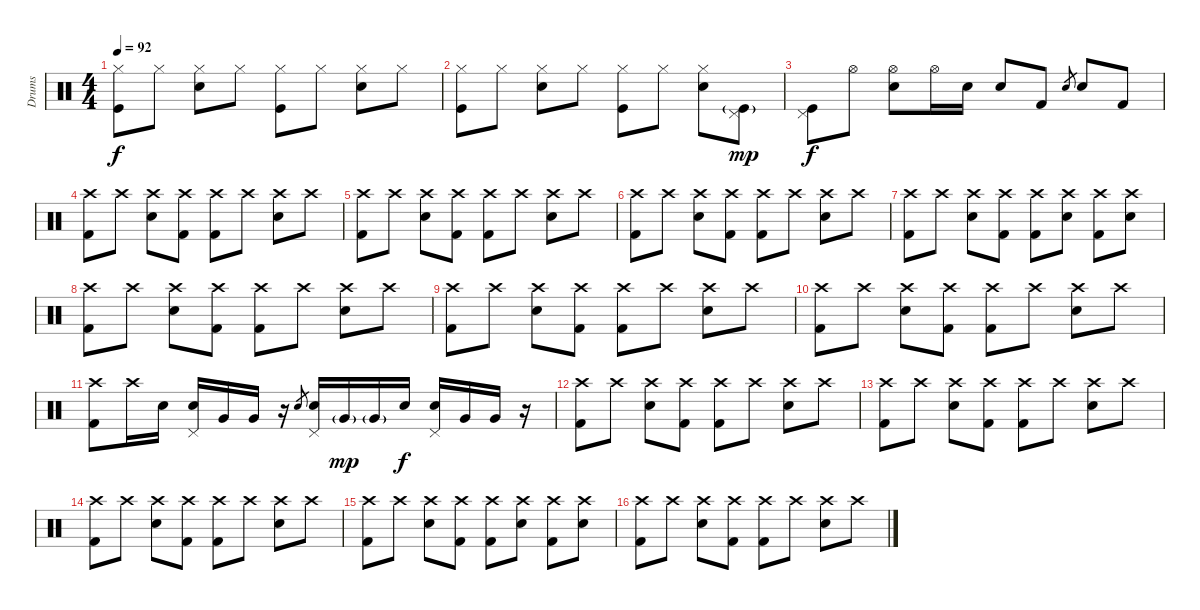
\track ("Drums" "Drums") {instrument percussion}
\staff {score}
\articulation defaults
\ts (4 4)
\tempo 92
\clef neutral
\ks c
("Hi-Hat (closed)" "Kick (hit)").8{dy f} "Hi-Hat (closed)".8 ("Hi-Hat (closed)" "Snare (hit) 2").8 "Hi-Hat (closed)".8 ("Hi-Hat (closed)" "Kick (hit)").8 "Hi-Hat (closed)".8 ("Hi-Hat (closed)" "Snare (hit) 2").8 "Hi-Hat (closed)".8 |
("Hi-Hat (closed)" "Kick (hit)").8 "Hi-Hat (closed)".8 ("Hi-Hat (closed)" "Snare (hit) 2").8 "Hi-Hat (closed)".8 ("Hi-Hat (closed)" "Kick (hit)").8 "Hi-Hat (closed)".8 ("Hi-Hat (closed)" "Snare (hit) 2").8 ("Pedal Hi-Hat (hit)" "Kick (hit)"{g}).8{dy mp} |
("Pedal Hi-Hat (hit)" "Kick (hit)").8{dy f} "Hi-Hat (open)".8 ("Hi-Hat (open)" "Snare (hit) 2").8 "Hi-Hat (open)".16 "Snare (hit) 2".16 "Snare (hit) 2".8 "Kick (hit) 2".8 "Snare (hit) 2".8{gr} "Snare (hit) 2".8 "Kick (hit) 2".8 |
("Crash high (hit)" "Kick (hit) 2").8 "Crash high (hit)".8 ("Crash high (hit)" "Snare (hit) 2").8 ("Crash high (hit)" "Kick (hit) 2").8 ("Crash high (hit)" "Kick (hit) 2").8 "Crash high (hit)".8 ("Crash high (hit)" "Snare (hit) 2").8 "Crash high (hit)".8 |
("Crash high (hit)" "Kick (hit) 2").8 "Crash high (hit)".8 ("Crash high (hit)" "Snare (hit) 2").8 ("Crash high (hit)" "Kick (hit) 2").8 ("Crash high (hit)" "Kick (hit) 2").8 "Crash high (hit)".8 ("Crash high (hit)" "Snare (hit) 2").8 "Crash high (hit)".8 |
("Crash high (hit)" "Kick (hit) 2").8 "Crash high (hit)".8 ("Crash high (hit)" "Snare (hit) 2").8 ("Crash high (hit)" "Kick (hit) 2").8 ("Crash high (hit)" "Kick (hit) 2").8 "Crash high (hit)".8 ("Crash high (hit)" "Snare (hit) 2").8 "Crash high (hit)".8 |
("Crash high (hit)" "Kick (hit) 2").8 "Crash high (hit)".8 ("Crash high (hit)" "Snare (hit) 2").8 ("Crash high (hit)" "Kick (hit) 2").8 ("Crash high (hit)" "Kick (hit) 2").8 ("Crash high (hit)" "Snare (hit) 2").8 ("Crash high (hit)" "Kick (hit) 2").8 ("Crash high (hit)" "Snare (hit) 2").8 |
("Crash high (hit)" "Kick (hit) 2").8 "Crash high (hit)".8 ("Crash high (hit)" "Snare (hit) 2").8 ("Crash high (hit)" "Kick (hit) 2").8 ("Crash high (hit)" "Kick (hit) 2").8 "Crash high (hit)".8 ("Crash high (hit)" "Snare (hit) 2").8 "Crash high (hit)".8 |
("Crash high (hit)" "Kick (hit) 2").8 "Crash high (hit)".8 ("Crash high (hit)" "Snare (hit) 2").8 ("Crash high (hit)" "Kick (hit) 2").8 ("Crash high (hit)" "Kick (hit) 2").8 "Crash high (hit)".8 ("Crash high (hit)" "Snare (hit) 2").8 "Crash high (hit)".8 |
("Crash high (hit)" "Kick (hit) 2").8 "Crash high (hit)".8 ("Crash high (hit)" "Snare (hit) 2").8 ("Crash high (hit)" "Kick (hit) 2").8 ("Crash high (hit)" "Kick (hit) 2").8 "Crash high (hit)".8 ("Crash high (hit)" "Snare (hit) 2").8 "Crash high (hit)".8 |
("Crash high (hit)" "Kick (hit) 2").8 "Crash high (hit)".16 "Snare (hit) 2".16 ("Pedal Hi-Hat (hit)" "Snare (hit) 2").16 "Very Low Tom (hit)".16 "Very Low Tom (hit)".16 r.16 "Snare (hit) 2".8{gr} ("Pedal Hi-Hat (hit)" "Snare (hit) 2").16 "Very Low Tom (hit)"{g}.16{dy mp volume 8} "Very Low Tom (hit)"{g}.16 "Snare (hit) 2".16{dy f volume 13} ("Pedal Hi-Hat (hit)" "Snare (hit) 2").16 "Very Low Tom (hit)".16 "Very Low Tom (hit)".16 r.16 |
("Crash high (hit)" "Kick (hit) 2").8 "Crash high (hit)".8 ("Crash high (hit)" "Snare (hit) 2").8 ("Crash high (hit)" "Kick (hit) 2").8 ("Crash high (hit)" "Kick (hit) 2").8 "Crash high (hit)".8 ("Crash high (hit)" "Snare (hit) 2").8 "Crash high (hit)".8 |
("Crash high (hit)" "Kick (hit) 2").8 "Crash high (hit)".8 ("Crash high (hit)" "Snare (hit) 2").8 ("Crash high (hit)" "Kick (hit) 2").8 ("Crash high (hit)" "Kick (hit) 2").8 "Crash high (hit)".8 ("Crash high (hit)" "Snare (hit) 2").8 "Crash high (hit)".8 |
("Crash high (hit)" "Kick (hit) 2").8 "Crash high (hit)".8 ("Crash high (hit)" "Snare (hit) 2").8 ("Crash high (hit)" "Kick (hit) 2").8 ("Crash high (hit)" "Kick (hit) 2").8 "Crash high (hit)".8 ("Crash high (hit)" "Snare (hit) 2").8 "Crash high (hit)".8 |
("Crash high (hit)" "Kick (hit) 2").8 "Crash high (hit)".8 ("Crash high (hit)" "Snare (hit) 2").8 ("Crash high (hit)" "Kick (hit) 2").8 ("Crash high (hit)" "Kick (hit) 2").8 ("Crash high (hit)" "Snare (hit) 2").8 ("Crash high (hit)" "Kick (hit) 2").8 ("Crash high (hit)" "Snare (hit) 2").8 |
("Crash high (hit)" "Kick (hit) 2").8 "Crash high (hit)".8 ("Crash high (hit)" "Snare (hit) 2").8 ("Crash high (hit)" "Kick (hit) 2").8 ("Crash high (hit)" "Kick (hit) 2").8 "Crash high (hit)".8 ("Crash high (hit)" "Snare (hit) 2").8 "Crash high (hit)".8
